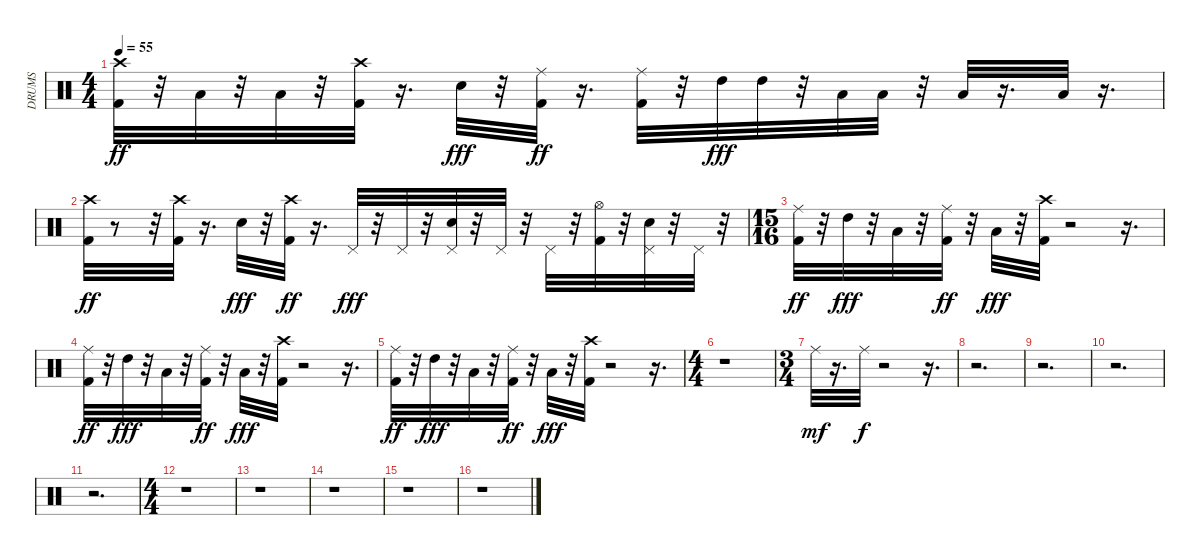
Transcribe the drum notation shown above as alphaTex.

\track ("DRUMS            " "DRUMS     ") {instrument percussion}
\staff {score}
\articulation defaults
\ts (4 4)
\tempo 55
\clef neutral
\ks c
("Kick (hit) 2" "Crash high (hit)").32{dy ff} r.32 "Low Tom (hit)".32 r.32 "Low Tom (hit)".32 r.32 ("Kick (hit) 2" "Crash high (hit)").32 r.16{d} "Snare (hit) 2".32{dy fff} r.32 ("Kick (hit) 2" "Ride (middle)").32{dy ff} r.16{d} ("Kick (hit) 2" "Ride (middle)").32 r.32 "High Tom (hit)".32{dy fff} "High Tom (hit)".32 r.32 "Low Tom (hit)".32 "Low Tom (hit)".32 r.32 "Low Floor Tom (hit)".32 r.16{d} "Low Floor Tom (hit)".32 r.16{d} |
("Kick (hit) 2" "Crash high (hit)").32{dy ff} r.8 r.32 ("Kick (hit) 2" "Crash high (hit)").32 r.16{d} "Snare (hit) 2".32{dy fff} r.32 ("Kick (hit) 2" "Crash high (hit)").32{dy ff} r.16{d} "Pedal Hi-Hat (hit)".32{dy fff} r.32 "Pedal Hi-Hat (hit)".32 r.32 ("Snare (hit) 2" "Pedal Hi-Hat (hit)").32 r.32 "Pedal Hi-Hat (hit)".32 r.32 "Pedal Hi-Hat (hit)".32 r.32 ("Kick (hit) 2" "Hi-Hat (open)").32 r.32 ("Snare (hit) 2" "Pedal Hi-Hat (hit)").32 r.32 "Pedal Hi-Hat (hit)".32 r.32 |
\ts (15 16)
("Kick (hit) 2" "Ride (middle)").32{dy ff} r.32 "High Tom (hit)".32{dy fff} r.32 "Low Tom (hit)".32 r.32 ("Kick (hit) 2" "Ride (middle)").32{dy ff} r.32 "Low Floor Tom (hit)".32{dy fff} r.32 ("Kick (hit) 2" "Crash high (hit)").32 r.2 r.16{d} |
("Kick (hit) 2" "Ride (middle)").32{dy ff} r.32 "High Tom (hit)".32{dy fff} r.32 "Low Tom (hit)".32 r.32 ("Kick (hit) 2" "Ride (middle)").32{dy ff} r.32 "Low Floor Tom (hit)".32{dy fff} r.32 ("Kick (hit) 2" "Crash high (hit)").32 r.2 r.16{d} |
("Kick (hit) 2" "Ride (middle)").32{dy ff} r.32 "High Tom (hit)".32{dy fff} r.32 "Low Tom (hit)".32 r.32 ("Kick (hit) 2" "Ride (middle)").32{dy ff} r.32 "Low Floor Tom (hit)".32{dy fff} r.32 ("Kick (hit) 2" "Crash high (hit)").32 r.2 r.16{d} |
\ts (4 4)
r.1 |
\ts (3 4)
"Ride (middle)".32{dy mf} r.16{d} "Ride (middle)".32{dy f} r.2 r.16{d} |
r.2{d} |
r.2{d} |
r.2{d} |
r.2{d} |
\ts (4 4)
r.1 |
r.1 |
r.1 |
r.1 |
r.1
